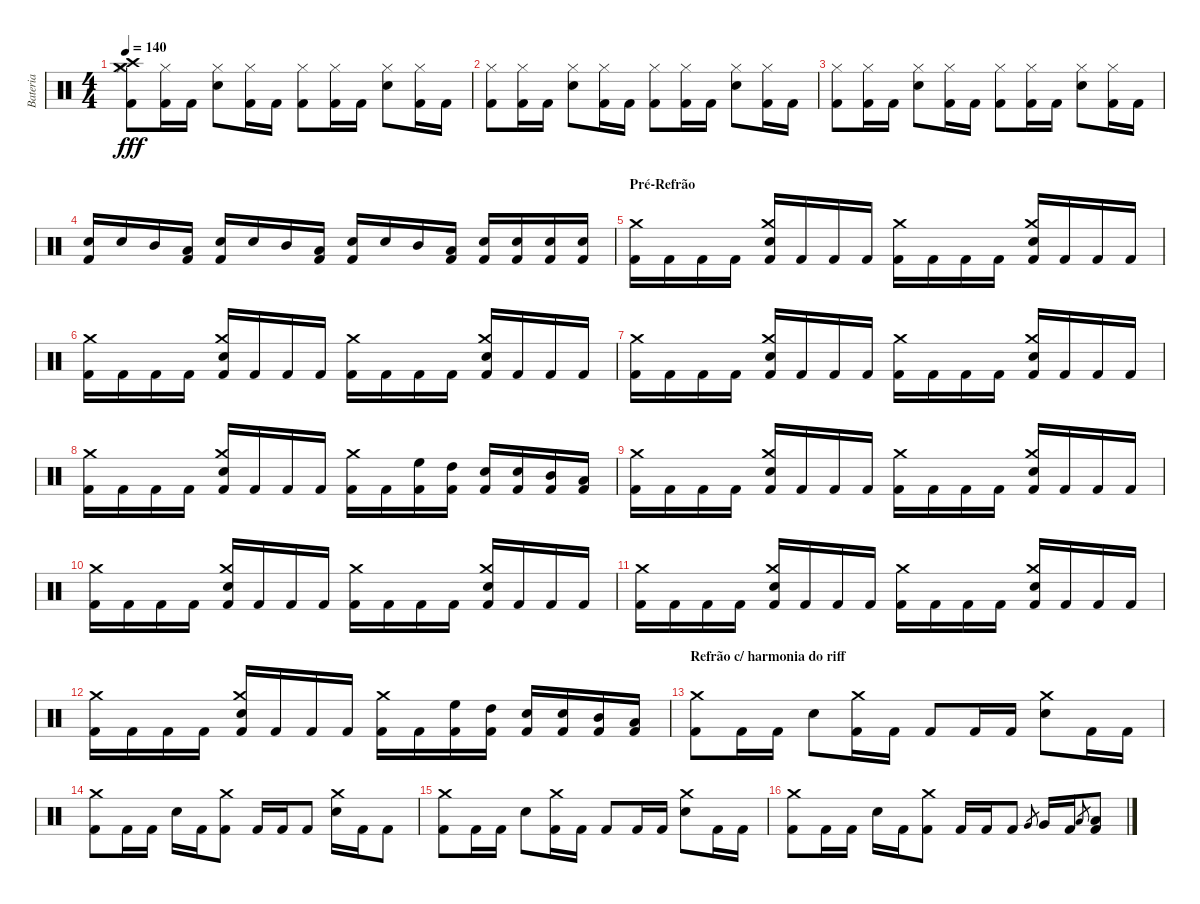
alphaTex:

\track ("Bateria" "Bateria") {instrument percussion}
\staff {score}
\articulation defaults
\ts (4 4)
\tempo 140
\clef neutral
\ks c
("Hi-Hat (closed)" "Kick (hit) 2" "Crash medium (hit)" "Crash high (hit)").8{dy fff} ("Hi-Hat (closed)" "Kick (hit) 2").16 "Kick (hit) 2".16 ("Hi-Hat (closed)" "Electric Snare (hit)").8 ("Hi-Hat (closed)" "Kick (hit) 2").16 "Kick (hit) 2".16 ("Hi-Hat (closed)" "Kick (hit) 2").8 ("Hi-Hat (closed)" "Kick (hit) 2").16 "Kick (hit) 2".16 ("Hi-Hat (closed)" "Electric Snare (hit)").8 ("Hi-Hat (closed)" "Kick (hit) 2").16 "Kick (hit) 2".16 |
("Hi-Hat (closed)" "Kick (hit) 2").8 ("Hi-Hat (closed)" "Kick (hit) 2").16 "Kick (hit) 2".16 ("Hi-Hat (closed)" "Electric Snare (hit)").8 ("Hi-Hat (closed)" "Kick (hit) 2").16 "Kick (hit) 2".16 ("Hi-Hat (closed)" "Kick (hit) 2").8 ("Hi-Hat (closed)" "Kick (hit) 2").16 "Kick (hit) 2".16 ("Hi-Hat (closed)" "Electric Snare (hit)").8 ("Hi-Hat (closed)" "Kick (hit) 2").16 "Kick (hit) 2".16 |
("Hi-Hat (closed)" "Kick (hit) 2").8 ("Hi-Hat (closed)" "Kick (hit) 2").16 "Kick (hit) 2".16 ("Hi-Hat (closed)" "Electric Snare (hit)").8 ("Hi-Hat (closed)" "Kick (hit) 2").16 "Kick (hit) 2".16 ("Hi-Hat (closed)" "Kick (hit) 2").8 ("Hi-Hat (closed)" "Kick (hit) 2").16 "Kick (hit) 2".16 ("Hi-Hat (closed)" "Electric Snare (hit)").8 ("Hi-Hat (closed)" "Kick (hit) 2").16 "Kick (hit) 2".16 |
("Kick (hit) 2" "Electric Snare (hit)").16 "Electric Snare (hit)".16 "Mid Tom (hit)".16 ("Kick (hit) 2" "Low Tom (hit)").16 ("Kick (hit) 2" "Electric Snare (hit)").16 "Electric Snare (hit)".16 "Mid Tom (hit)".16 ("Kick (hit) 2" "Low Tom (hit)").16 ("Kick (hit) 2" "Electric Snare (hit)").16 "Electric Snare (hit)".16 "Mid Tom (hit)".16 ("Kick (hit) 2" "Low Tom (hit)").16 ("Kick (hit) 2" "Electric Snare (hit)").16 ("Kick (hit) 2" "Electric Snare (hit)").16 ("Kick (hit) 2" "Electric Snare (hit)").16 ("Kick (hit) 2" "Electric Snare (hit)").16 |
\section ("" "Pré-Refrão")
("Kick (hit) 2" "Crash medium (hit)").16 "Kick (hit) 2".16 "Kick (hit) 2".16 "Kick (hit) 2".16 ("Kick (hit) 2" "Metronome (bell)" "Crash medium (hit)").16 "Kick (hit) 2".16 "Kick (hit) 2".16 "Kick (hit) 2".16 ("Kick (hit) 2" "Crash medium (hit)").16 "Kick (hit) 2".16 "Kick (hit) 2".16 "Kick (hit) 2".16 ("Kick (hit) 2" "Metronome (bell)" "Crash medium (hit)").16 "Kick (hit) 2".16 "Kick (hit) 2".16 "Kick (hit) 2".16 |
("Kick (hit) 2" "Crash medium (hit)").16 "Kick (hit) 2".16 "Kick (hit) 2".16 "Kick (hit) 2".16 ("Kick (hit) 2" "Metronome (bell)" "Crash medium (hit)").16 "Kick (hit) 2".16 "Kick (hit) 2".16 "Kick (hit) 2".16 ("Kick (hit) 2" "Crash medium (hit)").16 "Kick (hit) 2".16 "Kick (hit) 2".16 "Kick (hit) 2".16 ("Kick (hit) 2" "Metronome (bell)" "Crash medium (hit)").16 "Kick (hit) 2".16 "Kick (hit) 2".16 "Kick (hit) 2".16 |
("Kick (hit) 2" "Crash medium (hit)").16 "Kick (hit) 2".16 "Kick (hit) 2".16 "Kick (hit) 2".16 ("Kick (hit) 2" "Metronome (bell)" "Crash medium (hit)").16 "Kick (hit) 2".16 "Kick (hit) 2".16 "Kick (hit) 2".16 ("Kick (hit) 2" "Crash medium (hit)").16 "Kick (hit) 2".16 "Kick (hit) 2".16 "Kick (hit) 2".16 ("Kick (hit) 2" "Metronome (bell)" "Crash medium (hit)").16 "Kick (hit) 2".16 "Kick (hit) 2".16 "Kick (hit) 2".16 |
("Kick (hit) 2" "Crash medium (hit)").16 "Kick (hit) 2".16 "Kick (hit) 2".16 "Kick (hit) 2".16 ("Kick (hit) 2" "Metronome (bell)" "Crash medium (hit)").16 "Kick (hit) 2".16 "Kick (hit) 2".16 "Kick (hit) 2".16 ("Kick (hit) 2" "Crash medium (hit)").16 "Kick (hit) 2".16 ("Kick (hit) 2" "High Floor Tom (hit)").16 ("Kick (hit) 2" "High Tom (hit)").16 ("Kick (hit) 2" "Metronome (bell)").16 ("Kick (hit) 2" "Metronome (bell)").16 ("Kick (hit) 2" "Mid Tom (hit)").16 ("Kick (hit) 2" "Low Tom (hit)").16 |
("Kick (hit) 2" "Crash medium (hit)").16 "Kick (hit) 2".16 "Kick (hit) 2".16 "Kick (hit) 2".16 ("Kick (hit) 2" "Metronome (bell)" "Crash medium (hit)").16 "Kick (hit) 2".16 "Kick (hit) 2".16 "Kick (hit) 2".16 ("Kick (hit) 2" "Crash medium (hit)").16 "Kick (hit) 2".16 "Kick (hit) 2".16 "Kick (hit) 2".16 ("Kick (hit) 2" "Metronome (bell)" "Crash medium (hit)").16 "Kick (hit) 2".16 "Kick (hit) 2".16 "Kick (hit) 2".16 |
("Kick (hit) 2" "Crash medium (hit)").16 "Kick (hit) 2".16 "Kick (hit) 2".16 "Kick (hit) 2".16 ("Kick (hit) 2" "Metronome (bell)" "Crash medium (hit)").16 "Kick (hit) 2".16 "Kick (hit) 2".16 "Kick (hit) 2".16 ("Kick (hit) 2" "Crash medium (hit)").16 "Kick (hit) 2".16 "Kick (hit) 2".16 "Kick (hit) 2".16 ("Kick (hit) 2" "Metronome (bell)" "Crash medium (hit)").16 "Kick (hit) 2".16 "Kick (hit) 2".16 "Kick (hit) 2".16 |
("Kick (hit) 2" "Crash medium (hit)").16 "Kick (hit) 2".16 "Kick (hit) 2".16 "Kick (hit) 2".16 ("Kick (hit) 2" "Metronome (bell)" "Crash medium (hit)").16 "Kick (hit) 2".16 "Kick (hit) 2".16 "Kick (hit) 2".16 ("Kick (hit) 2" "Crash medium (hit)").16 "Kick (hit) 2".16 "Kick (hit) 2".16 "Kick (hit) 2".16 ("Kick (hit) 2" "Metronome (bell)" "Crash medium (hit)").16 "Kick (hit) 2".16 "Kick (hit) 2".16 "Kick (hit) 2".16 |
("Kick (hit) 2" "Crash medium (hit)").16 "Kick (hit) 2".16 "Kick (hit) 2".16 "Kick (hit) 2".16 ("Kick (hit) 2" "Metronome (bell)" "Crash medium (hit)").16 "Kick (hit) 2".16 "Kick (hit) 2".16 "Kick (hit) 2".16 ("Kick (hit) 2" "Crash medium (hit)").16 "Kick (hit) 2".16 ("Kick (hit) 2" "High Floor Tom (hit)").16 ("Kick (hit) 2" "High Tom (hit)").16 ("Kick (hit) 2" "Metronome (bell)").16 ("Kick (hit) 2" "Metronome (bell)").16 ("Kick (hit) 2" "Mid Tom (hit)").16 ("Kick (hit) 2" "Low Tom (hit)").16 |
\section ("" "Refrão c/ harmonia do riff")
("Kick (hit) 2" "Crash medium (hit)").8 "Kick (hit) 2".16 "Kick (hit) 2".16 "Metronome (bell)".8 ("Kick (hit) 2" "Crash medium (hit)").16 "Kick (hit) 2".16 "Kick (hit) 2".8 "Kick (hit) 2".16 "Kick (hit) 2".16 ("Metronome (bell)" "Crash medium (hit)").8 "Kick (hit) 2".16 "Kick (hit) 2".16 |
("Kick (hit) 2" "Crash medium (hit)").8 "Kick (hit) 2".16 "Kick (hit) 2".16 "Metronome (bell)".16 "Kick (hit) 2".16 ("Kick (hit) 2" "Crash medium (hit)").8 "Kick (hit) 2".16 "Kick (hit) 2".16 "Kick (hit) 2".8 ("Metronome (bell)" "Crash medium (hit)").16 "Kick (hit) 2".16 "Kick (hit) 2".8 |
("Kick (hit) 2" "Crash medium (hit)").8 "Kick (hit) 2".16 "Kick (hit) 2".16 "Metronome (bell)".8 ("Kick (hit) 2" "Crash medium (hit)").16 "Kick (hit) 2".16 "Kick (hit) 2".8 "Kick (hit) 2".16 "Kick (hit) 2".16 ("Metronome (bell)" "Crash medium (hit)").8 "Kick (hit) 2".16 "Kick (hit) 2".16 |
("Kick (hit) 2" "Crash medium (hit)").8 "Kick (hit) 2".16 "Kick (hit) 2".16 "Metronome (bell)".16 "Kick (hit) 2".16 ("Kick (hit) 2" "Crash medium (hit)").8 "Kick (hit) 2".16 "Kick (hit) 2".16 "Kick (hit) 2".8 "Very Low Tom (hit)".8{gr} "Very Low Tom (hit)".16 "Kick (hit) 2".16 "Low Tom (hit)".8{gr} ("Kick (hit) 2" "Low Tom (hit)").8
